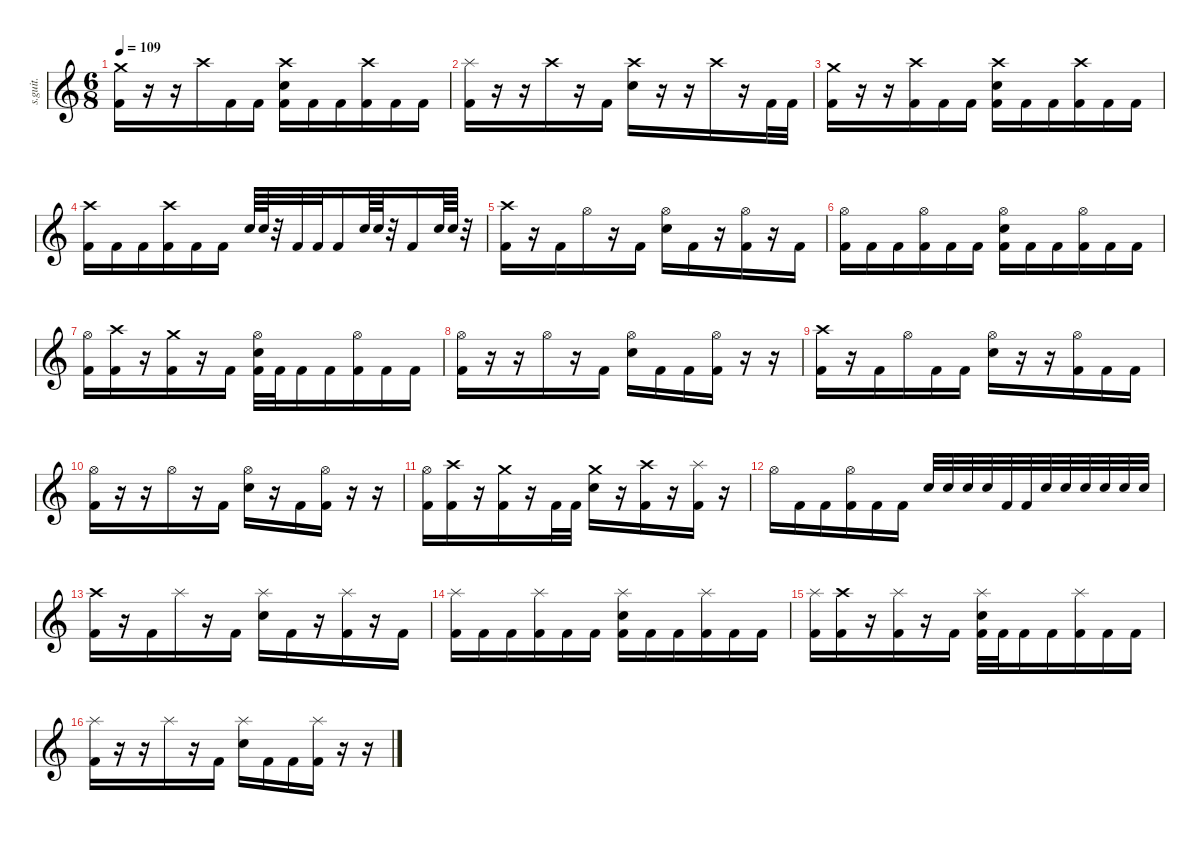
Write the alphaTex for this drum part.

\defaultSystemsLayout 4
\hideDynamics
\bracketExtendMode nobrackets
\track ("Drumkit" "s.guit.") {instrument percussion}
\staff {score}
\articulation defaults
\ts (6 8)
\tempo 109
\clef g2
\ks c
("Crash medium (hit)" "Kick (hit) 2").16{lyrics (0 "") lyrics (1 "") lyrics (2 "") lyrics (3 "") lyrics (4 "") dy f} r.16 r.16 "Crash high (hit)".16{lyrics (0 "") lyrics (1 "") lyrics (2 "") lyrics (3 "") lyrics (4 "")} "Kick (hit) 2".16{lyrics (0 "") lyrics (1 "") lyrics (2 "") lyrics (3 "") lyrics (4 "")} "Kick (hit) 2".16{lyrics (0 "") lyrics (1 "") lyrics (2 "") lyrics (3 "") lyrics (4 "")} ("Crash high (hit)" "Electric Snare (hit)" "Kick (hit) 2").16{lyrics (0 "") lyrics (1 "") lyrics (2 "") lyrics (3 "") lyrics (4 "")} "Kick (hit) 2".16{lyrics (0 "") lyrics (1 "") lyrics (2 "") lyrics (3 "") lyrics (4 "")} "Kick (hit) 2".16{lyrics (0 "") lyrics (1 "") lyrics (2 "") lyrics (3 "") lyrics (4 "")} ("Crash high (hit)" "Kick (hit) 2").16{lyrics (0 "") lyrics (1 "") lyrics (2 "") lyrics (3 "") lyrics (4 "")} "Kick (hit) 2".16{lyrics (0 "") lyrics (1 "") lyrics (2 "") lyrics (3 "") lyrics (4 "")} "Kick (hit) 2".16{lyrics (0 "") lyrics (1 "") lyrics (2 "") lyrics (3 "") lyrics (4 "")} |
("Splash (hit)" "Kick (hit) 2").16{lyrics (0 "") lyrics (1 "") lyrics (2 "") lyrics (3 "") lyrics (4 "")} r.16 r.16 "Crash high (hit)".16{lyrics (0 "") lyrics (1 "") lyrics (2 "") lyrics (3 "") lyrics (4 "")} r.16 "Kick (hit) 2".16{lyrics (0 "") lyrics (1 "") lyrics (2 "") lyrics (3 "") lyrics (4 "")} ("Crash high (hit)" "Electric Snare (hit)").16{lyrics (0 "") lyrics (1 "") lyrics (2 "") lyrics (3 "") lyrics (4 "")} r.16 r.16 "Crash high (hit)".16{lyrics (0 "") lyrics (1 "") lyrics (2 "") lyrics (3 "") lyrics (4 "")} r.16 "Kick (hit) 2".32{lyrics (0 "") lyrics (1 "") lyrics (2 "") lyrics (3 "") lyrics (4 "")} "Kick (hit) 2".32{lyrics (0 "") lyrics (1 "") lyrics (2 "") lyrics (3 "") lyrics (4 "")} |
("Crash medium (hit)" "Kick (hit) 2").16{lyrics (0 "") lyrics (1 "") lyrics (2 "") lyrics (3 "") lyrics (4 "")} r.16 r.16 ("Crash high (hit)" "Kick (hit) 2").16{lyrics (0 "") lyrics (1 "") lyrics (2 "") lyrics (3 "") lyrics (4 "")} "Kick (hit) 2".16{lyrics (0 "") lyrics (1 "") lyrics (2 "") lyrics (3 "") lyrics (4 "")} "Kick (hit) 2".16{lyrics (0 "") lyrics (1 "") lyrics (2 "") lyrics (3 "") lyrics (4 "")} ("Crash high (hit)" "Electric Snare (hit)" "Kick (hit) 2").16{lyrics (0 "") lyrics (1 "") lyrics (2 "") lyrics (3 "") lyrics (4 "")} "Kick (hit) 2".16{lyrics (0 "") lyrics (1 "") lyrics (2 "") lyrics (3 "") lyrics (4 "")} "Kick (hit) 2".16{lyrics (0 "") lyrics (1 "") lyrics (2 "") lyrics (3 "") lyrics (4 "")} ("Crash high (hit)" "Kick (hit) 2").16{lyrics (0 "") lyrics (1 "") lyrics (2 "") lyrics (3 "") lyrics (4 "")} "Kick (hit) 2".16{lyrics (0 "") lyrics (1 "") lyrics (2 "") lyrics (3 "") lyrics (4 "")} "Kick (hit) 2".16{lyrics (0 "") lyrics (1 "") lyrics (2 "") lyrics (3 "") lyrics (4 "")} |
("Crash high (hit)" "Kick (hit) 2").16{lyrics (0 "") lyrics (1 "") lyrics (2 "") lyrics (3 "") lyrics (4 "")} "Kick (hit) 2".16{lyrics (0 "") lyrics (1 "") lyrics (2 "") lyrics (3 "") lyrics (4 "")} "Kick (hit) 2".16{lyrics (0 "") lyrics (1 "") lyrics (2 "") lyrics (3 "") lyrics (4 "")} ("Crash high (hit)" "Kick (hit) 2").16{lyrics (0 "") lyrics (1 "") lyrics (2 "") lyrics (3 "") lyrics (4 "")} "Kick (hit) 2".16{lyrics (0 "") lyrics (1 "") lyrics (2 "") lyrics (3 "") lyrics (4 "")} "Kick (hit) 2".16{lyrics (0 "") lyrics (1 "") lyrics (2 "") lyrics (3 "") lyrics (4 "")} "Electric Snare (hit)".64{lyrics (0 "") lyrics (1 "") lyrics (2 "") lyrics (3 "") lyrics (4 "")} "Electric Snare (hit)".64{lyrics (0 "") lyrics (1 "") lyrics (2 "") lyrics (3 "") lyrics (4 "")} r.32 "Kick (hit) 2".32{lyrics (0 "") lyrics (1 "") lyrics (2 "") lyrics (3 "") lyrics (4 "")} "Kick (hit) 2".32{lyrics (0 "") lyrics (1 "") lyrics (2 "") lyrics (3 "") lyrics (4 "")} "Kick (hit) 2".16{lyrics (0 "") lyrics (1 "") lyrics (2 "") lyrics (3 "") lyrics (4 "")} "Electric Snare (hit)".64{lyrics (0 "") lyrics (1 "") lyrics (2 "") lyrics (3 "") lyrics (4 "")} "Electric Snare (hit)".64{lyrics (0 "") lyrics (1 "") lyrics (2 "") lyrics (3 "") lyrics (4 "")} r.32 "Kick (hit) 2".16{lyrics (0 "") lyrics (1 "") lyrics (2 "") lyrics (3 "") lyrics (4 "")} "Electric Snare (hit)".64{lyrics (0 "") lyrics (1 "") lyrics (2 "") lyrics (3 "") lyrics (4 "")} "Electric Snare (hit)".64{lyrics (0 "") lyrics (1 "") lyrics (2 "") lyrics (3 "") lyrics (4 "")} r.32 |
("Crash high (hit)" "Kick (hit) 2").16{lyrics (0 "") lyrics (1 "") lyrics (2 "") lyrics (3 "") lyrics (4 "")} r.16 "Kick (hit) 2".16{lyrics (0 "") lyrics (1 "") lyrics (2 "") lyrics (3 "") lyrics (4 "")} "Hi-Hat (open)".16{lyrics (0 "") lyrics (1 "") lyrics (2 "") lyrics (3 "") lyrics (4 "")} r.16 "Kick (hit) 2".16{lyrics (0 "") lyrics (1 "") lyrics (2 "") lyrics (3 "") lyrics (4 "")} ("Hi-Hat (open)" "Electric Snare (hit)").16{lyrics (0 "") lyrics (1 "") lyrics (2 "") lyrics (3 "") lyrics (4 "")} "Kick (hit) 2".16{lyrics (0 "") lyrics (1 "") lyrics (2 "") lyrics (3 "") lyrics (4 "")} r.16 ("Hi-Hat (open)" "Kick (hit) 2").16{lyrics (0 "") lyrics (1 "") lyrics (2 "") lyrics (3 "") lyrics (4 "")} r.16 "Kick (hit) 2".16{lyrics (0 "") lyrics (1 "") lyrics (2 "") lyrics (3 "") lyrics (4 "")} |
("Hi-Hat (open)" "Kick (hit) 2").16{lyrics (0 "") lyrics (1 "") lyrics (2 "") lyrics (3 "") lyrics (4 "")} "Kick (hit) 2".16{lyrics (0 "") lyrics (1 "") lyrics (2 "") lyrics (3 "") lyrics (4 "")} "Kick (hit) 2".16{lyrics (0 "") lyrics (1 "") lyrics (2 "") lyrics (3 "") lyrics (4 "")} ("Hi-Hat (open)" "Kick (hit) 2").16{lyrics (0 "") lyrics (1 "") lyrics (2 "") lyrics (3 "") lyrics (4 "")} "Kick (hit) 2".16{lyrics (0 "") lyrics (1 "") lyrics (2 "") lyrics (3 "") lyrics (4 "")} "Kick (hit) 2".16{lyrics (0 "") lyrics (1 "") lyrics (2 "") lyrics (3 "") lyrics (4 "")} ("Hi-Hat (open)" "Electric Snare (hit)" "Kick (hit) 2").16{lyrics (0 "") lyrics (1 "") lyrics (2 "") lyrics (3 "") lyrics (4 "")} "Kick (hit) 2".16{lyrics (0 "") lyrics (1 "") lyrics (2 "") lyrics (3 "") lyrics (4 "")} "Kick (hit) 2".16{lyrics (0 "") lyrics (1 "") lyrics (2 "") lyrics (3 "") lyrics (4 "")} ("Hi-Hat (open)" "Kick (hit) 2").16{lyrics (0 "") lyrics (1 "") lyrics (2 "") lyrics (3 "") lyrics (4 "")} "Kick (hit) 2".16{lyrics (0 "") lyrics (1 "") lyrics (2 "") lyrics (3 "") lyrics (4 "")} "Kick (hit) 2".16{lyrics (0 "") lyrics (1 "") lyrics (2 "") lyrics (3 "") lyrics (4 "")} |
("Hi-Hat (open)" "Kick (hit) 2").16{lyrics (0 "") lyrics (1 "") lyrics (2 "") lyrics (3 "") lyrics (4 "")} ("Crash high (hit)" "Kick (hit) 2").16{lyrics (0 "") lyrics (1 "") lyrics (2 "") lyrics (3 "") lyrics (4 "")} r.16 ("Crash medium (hit)" "Kick (hit) 2").16{lyrics (0 "") lyrics (1 "") lyrics (2 "") lyrics (3 "") lyrics (4 "")} r.16 "Kick (hit) 2".16{lyrics (0 "") lyrics (1 "") lyrics (2 "") lyrics (3 "") lyrics (4 "")} ("Hi-Hat (open)" "Electric Snare (hit)" "Kick (hit) 2").32{lyrics (0 "") lyrics (1 "") lyrics (2 "") lyrics (3 "") lyrics (4 "")} "Kick (hit) 2".32{lyrics (0 "") lyrics (1 "") lyrics (2 "") lyrics (3 "") lyrics (4 "")} "Kick (hit) 2".16{lyrics (0 "") lyrics (1 "") lyrics (2 "") lyrics (3 "") lyrics (4 "")} "Kick (hit) 2".16{lyrics (0 "") lyrics (1 "") lyrics (2 "") lyrics (3 "") lyrics (4 "")} ("Hi-Hat (open)" "Kick (hit) 2").16{lyrics (0 "") lyrics (1 "") lyrics (2 "") lyrics (3 "") lyrics (4 "")} "Kick (hit) 2".16{lyrics (0 "") lyrics (1 "") lyrics (2 "") lyrics (3 "") lyrics (4 "")} "Kick (hit) 2".16{lyrics (0 "") lyrics (1 "") lyrics (2 "") lyrics (3 "") lyrics (4 "")} |
("Hi-Hat (open)" "Kick (hit) 2").16{lyrics (0 "") lyrics (1 "") lyrics (2 "") lyrics (3 "") lyrics (4 "")} r.16 r.16 "Hi-Hat (open)".16{lyrics (0 "") lyrics (1 "") lyrics (2 "") lyrics (3 "") lyrics (4 "")} r.16 "Kick (hit) 2".16{lyrics (0 "") lyrics (1 "") lyrics (2 "") lyrics (3 "") lyrics (4 "")} ("Hi-Hat (open)" "Electric Snare (hit)").16{lyrics (0 "") lyrics (1 "") lyrics (2 "") lyrics (3 "") lyrics (4 "")} "Kick (hit) 2".16{lyrics (0 "") lyrics (1 "") lyrics (2 "") lyrics (3 "") lyrics (4 "")} "Kick (hit) 2".16{lyrics (0 "") lyrics (1 "") lyrics (2 "") lyrics (3 "") lyrics (4 "")} ("Hi-Hat (open)" "Kick (hit) 2").16{lyrics (0 "") lyrics (1 "") lyrics (2 "") lyrics (3 "") lyrics (4 "")} r.16 r.16 |
("Crash high (hit)" "Kick (hit) 2").16{lyrics (0 "") lyrics (1 "") lyrics (2 "") lyrics (3 "") lyrics (4 "")} r.16 "Kick (hit) 2".16{lyrics (0 "") lyrics (1 "") lyrics (2 "") lyrics (3 "") lyrics (4 "")} "Hi-Hat (open)".16{lyrics (0 "") lyrics (1 "") lyrics (2 "") lyrics (3 "") lyrics (4 "")} "Kick (hit) 2".16{lyrics (0 "") lyrics (1 "") lyrics (2 "") lyrics (3 "") lyrics (4 "")} "Kick (hit) 2".16{lyrics (0 "") lyrics (1 "") lyrics (2 "") lyrics (3 "") lyrics (4 "")} ("Hi-Hat (open)" "Electric Snare (hit)").16{lyrics (0 "") lyrics (1 "") lyrics (2 "") lyrics (3 "") lyrics (4 "")} r.16 r.16 ("Hi-Hat (open)" "Kick (hit) 2").16{lyrics (0 "") lyrics (1 "") lyrics (2 "") lyrics (3 "") lyrics (4 "")} "Kick (hit) 2".16{lyrics (0 "") lyrics (1 "") lyrics (2 "") lyrics (3 "") lyrics (4 "")} "Kick (hit) 2".16{lyrics (0 "") lyrics (1 "") lyrics (2 "") lyrics (3 "") lyrics (4 "")} |
("Hi-Hat (open)" "Kick (hit) 2").16{lyrics (0 "") lyrics (1 "") lyrics (2 "") lyrics (3 "") lyrics (4 "")} r.16 r.16 "Hi-Hat (open)".16{lyrics (0 "") lyrics (1 "") lyrics (2 "") lyrics (3 "") lyrics (4 "")} r.16 "Kick (hit) 2".16{lyrics (0 "") lyrics (1 "") lyrics (2 "") lyrics (3 "") lyrics (4 "")} ("Hi-Hat (open)" "Electric Snare (hit)").16{lyrics (0 "") lyrics (1 "") lyrics (2 "") lyrics (3 "") lyrics (4 "")} r.16 "Kick (hit) 2".16{lyrics (0 "") lyrics (1 "") lyrics (2 "") lyrics (3 "") lyrics (4 "")} ("Hi-Hat (open)" "Kick (hit) 2").16{lyrics (0 "") lyrics (1 "") lyrics (2 "") lyrics (3 "") lyrics (4 "")} r.16 r.16 |
("Hi-Hat (open)" "Kick (hit) 2").16{lyrics (0 "") lyrics (1 "") lyrics (2 "") lyrics (3 "") lyrics (4 "")} ("Crash high (hit)" "Kick (hit) 2").16{lyrics (0 "") lyrics (1 "") lyrics (2 "") lyrics (3 "") lyrics (4 "")} r.16 ("Crash medium (hit)" "Kick (hit) 2").16{lyrics (0 "") lyrics (1 "") lyrics (2 "") lyrics (3 "") lyrics (4 "")} r.16 "Kick (hit) 2".32{lyrics (0 "") lyrics (1 "") lyrics (2 "") lyrics (3 "") lyrics (4 "")} "Kick (hit) 2".32{lyrics (0 "") lyrics (1 "") lyrics (2 "") lyrics (3 "") lyrics (4 "")} ("Crash medium (hit)" "Electric Snare (hit)").16{lyrics (0 "") lyrics (1 "") lyrics (2 "") lyrics (3 "") lyrics (4 "")} r.16 ("Crash high (hit)" "Kick (hit) 2").16{lyrics (0 "") lyrics (1 "") lyrics (2 "") lyrics (3 "") lyrics (4 "")} r.16 ("Splash (hit)" "Kick (hit) 2").16{lyrics (0 "") lyrics (1 "") lyrics (2 "") lyrics (3 "") lyrics (4 "")} r.16 |
"Hi-Hat (open)".16{lyrics (0 "") lyrics (1 "") lyrics (2 "") lyrics (3 "") lyrics (4 "")} "Kick (hit) 2".16{lyrics (0 "") lyrics (1 "") lyrics (2 "") lyrics (3 "") lyrics (4 "")} "Kick (hit) 2".16{lyrics (0 "") lyrics (1 "") lyrics (2 "") lyrics (3 "") lyrics (4 "")} ("Hi-Hat (open)" "Kick (hit) 2").16{lyrics (0 "") lyrics (1 "") lyrics (2 "") lyrics (3 "") lyrics (4 "")} "Kick (hit) 2".16{lyrics (0 "") lyrics (1 "") lyrics (2 "") lyrics (3 "") lyrics (4 "")} "Kick (hit) 2".16{lyrics (0 "") lyrics (1 "") lyrics (2 "") lyrics (3 "") lyrics (4 "")} "Electric Snare (hit)".32{lyrics (0 "") lyrics (1 "") lyrics (2 "") lyrics (3 "") lyrics (4 "")} "Electric Snare (hit)".32{lyrics (0 "") lyrics (1 "") lyrics (2 "") lyrics (3 "") lyrics (4 "")} "Electric Snare (hit)".32{lyrics (0 "") lyrics (1 "") lyrics (2 "") lyrics (3 "") lyrics (4 "")} "Electric Snare (hit)".32{lyrics (0 "") lyrics (1 "") lyrics (2 "") lyrics (3 "") lyrics (4 "")} "Kick (hit) 2".32{lyrics (0 "") lyrics (1 "") lyrics (2 "") lyrics (3 "") lyrics (4 "")} "Kick (hit) 2".32{lyrics (0 "") lyrics (1 "") lyrics (2 "") lyrics (3 "") lyrics (4 "")} "Electric Snare (hit)".32{lyrics (0 "") lyrics (1 "") lyrics (2 "") lyrics (3 "") lyrics (4 "")} "Electric Snare (hit)".32{lyrics (0 "") lyrics (1 "") lyrics (2 "") lyrics (3 "") lyrics (4 "")} "Electric Snare (hit)".32{lyrics (0 "") lyrics (1 "") lyrics (2 "") lyrics (3 "") lyrics (4 "")} "Electric Snare (hit)".32{lyrics (0 "") lyrics (1 "") lyrics (2 "") lyrics (3 "") lyrics (4 "")} "Electric Snare (hit)".32{lyrics (0 "") lyrics (1 "") lyrics (2 "") lyrics (3 "") lyrics (4 "")} "Electric Snare (hit)".32{lyrics (0 "") lyrics (1 "") lyrics (2 "") lyrics (3 "") lyrics (4 "")} |
("Crash high (hit)" "Kick (hit) 2").16{lyrics (0 "") lyrics (1 "") lyrics (2 "") lyrics (3 "") lyrics (4 "")} r.16 "Kick (hit) 2".16{lyrics (0 "") lyrics (1 "") lyrics (2 "") lyrics (3 "") lyrics (4 "")} "Splash (hit)".16{lyrics (0 "") lyrics (1 "") lyrics (2 "") lyrics (3 "") lyrics (4 "")} r.16 "Kick (hit) 2".16{lyrics (0 "") lyrics (1 "") lyrics (2 "") lyrics (3 "") lyrics (4 "")} ("Splash (hit)" "Electric Snare (hit)").16{lyrics (0 "") lyrics (1 "") lyrics (2 "") lyrics (3 "") lyrics (4 "")} "Kick (hit) 2".16{lyrics (0 "") lyrics (1 "") lyrics (2 "") lyrics (3 "") lyrics (4 "")} r.16 ("Splash (hit)" "Kick (hit) 2").16{lyrics (0 "") lyrics (1 "") lyrics (2 "") lyrics (3 "") lyrics (4 "")} r.16 "Kick (hit) 2".16{lyrics (0 "") lyrics (1 "") lyrics (2 "") lyrics (3 "") lyrics (4 "")} |
("Splash (hit)" "Kick (hit) 2").16{lyrics (0 "") lyrics (1 "") lyrics (2 "") lyrics (3 "") lyrics (4 "")} "Kick (hit) 2".16{lyrics (0 "") lyrics (1 "") lyrics (2 "") lyrics (3 "") lyrics (4 "")} "Kick (hit) 2".16{lyrics (0 "") lyrics (1 "") lyrics (2 "") lyrics (3 "") lyrics (4 "")} ("Splash (hit)" "Kick (hit) 2").16{lyrics (0 "") lyrics (1 "") lyrics (2 "") lyrics (3 "") lyrics (4 "")} "Kick (hit) 2".16{lyrics (0 "") lyrics (1 "") lyrics (2 "") lyrics (3 "") lyrics (4 "")} "Kick (hit) 2".16{lyrics (0 "") lyrics (1 "") lyrics (2 "") lyrics (3 "") lyrics (4 "")} ("Splash (hit)" "Electric Snare (hit)" "Kick (hit) 2").16{lyrics (0 "") lyrics (1 "") lyrics (2 "") lyrics (3 "") lyrics (4 "")} "Kick (hit) 2".16{lyrics (0 "") lyrics (1 "") lyrics (2 "") lyrics (3 "") lyrics (4 "")} "Kick (hit) 2".16{lyrics (0 "") lyrics (1 "") lyrics (2 "") lyrics (3 "") lyrics (4 "")} ("Splash (hit)" "Kick (hit) 2").16{lyrics (0 "") lyrics (1 "") lyrics (2 "") lyrics (3 "") lyrics (4 "")} "Kick (hit) 2".16{lyrics (0 "") lyrics (1 "") lyrics (2 "") lyrics (3 "") lyrics (4 "")} "Kick (hit) 2".16{lyrics (0 "") lyrics (1 "") lyrics (2 "") lyrics (3 "") lyrics (4 "")} |
("Splash (hit)" "Kick (hit) 2").16{lyrics (0 "") lyrics (1 "") lyrics (2 "") lyrics (3 "") lyrics (4 "")} ("Crash high (hit)" "Kick (hit) 2").16{lyrics (0 "") lyrics (1 "") lyrics (2 "") lyrics (3 "") lyrics (4 "")} r.16 ("Splash (hit)" "Kick (hit) 2").16{lyrics (0 "") lyrics (1 "") lyrics (2 "") lyrics (3 "") lyrics (4 "")} r.16 "Kick (hit) 2".16{lyrics (0 "") lyrics (1 "") lyrics (2 "") lyrics (3 "") lyrics (4 "")} ("Splash (hit)" "Electric Snare (hit)" "Kick (hit) 2").32{lyrics (0 "") lyrics (1 "") lyrics (2 "") lyrics (3 "") lyrics (4 "")} "Kick (hit) 2".32{lyrics (0 "") lyrics (1 "") lyrics (2 "") lyrics (3 "") lyrics (4 "")} "Kick (hit) 2".16{lyrics (0 "") lyrics (1 "") lyrics (2 "") lyrics (3 "") lyrics (4 "")} "Kick (hit) 2".16{lyrics (0 "") lyrics (1 "") lyrics (2 "") lyrics (3 "") lyrics (4 "")} ("Splash (hit)" "Kick (hit) 2").16{lyrics (0 "") lyrics (1 "") lyrics (2 "") lyrics (3 "") lyrics (4 "")} "Kick (hit) 2".16{lyrics (0 "") lyrics (1 "") lyrics (2 "") lyrics (3 "") lyrics (4 "")} "Kick (hit) 2".16{lyrics (0 "") lyrics (1 "") lyrics (2 "") lyrics (3 "") lyrics (4 "")} |
("Splash (hit)" "Kick (hit) 2").16{lyrics (0 "") lyrics (1 "") lyrics (2 "") lyrics (3 "") lyrics (4 "")} r.16 r.16 "Splash (hit)".16{lyrics (0 "") lyrics (1 "") lyrics (2 "") lyrics (3 "") lyrics (4 "")} r.16 "Kick (hit) 2".16{lyrics (0 "") lyrics (1 "") lyrics (2 "") lyrics (3 "") lyrics (4 "")} ("Splash (hit)" "Electric Snare (hit)").16{lyrics (0 "") lyrics (1 "") lyrics (2 "") lyrics (3 "") lyrics (4 "")} "Kick (hit) 2".16{lyrics (0 "") lyrics (1 "") lyrics (2 "") lyrics (3 "") lyrics (4 "")} "Kick (hit) 2".16{lyrics (0 "") lyrics (1 "") lyrics (2 "") lyrics (3 "") lyrics (4 "")} ("Splash (hit)" "Kick (hit) 2").16{lyrics (0 "") lyrics (1 "") lyrics (2 "") lyrics (3 "") lyrics (4 "")} r.16 r.16
